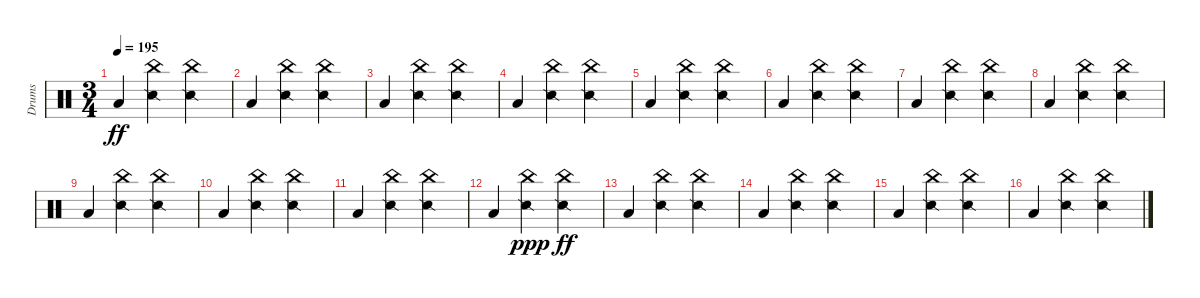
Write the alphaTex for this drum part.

\track ("Drums" "Drums") {instrument percussion}
\staff {score}
\articulation defaults
\ts (3 4)
\tempo 195
\clef neutral
\ks c "Low Floor Tom (hit)".4{dy ff}
("China (hit)" "Snare (side stick) 2").4 ("China (hit)" "Snare (side stick) 2").4 |
"Low Floor Tom (hit)".4 ("China (hit)" "Snare (side stick) 2").4 ("China (hit)" "Snare (side stick) 2").4 |
"Low Floor Tom (hit)".4 ("China (hit)" "Snare (side stick) 2").4 ("China (hit)" "Snare (side stick) 2").4 |
"Low Floor Tom (hit)".4 ("China (hit)" "Snare (side stick) 2").4 ("China (hit)" "Snare (side stick) 2").4 |
"Low Floor Tom (hit)".4 ("China (hit)" "Snare (side stick) 2").4 ("China (hit)" "Snare (side stick) 2").4 |
"Low Floor Tom (hit)".4 ("China (hit)" "Snare (side stick) 2").4 ("China (hit)" "Snare (side stick) 2").4 |
"Low Floor Tom (hit)".4 ("China (hit)" "Snare (side stick) 2").4 ("China (hit)" "Snare (side stick) 2").4 |
"Low Floor Tom (hit)".4{volume 8} ("China (hit)" "Snare (side stick) 2").4 ("China (hit)" "Snare (side stick) 2").4 |
"Low Floor Tom (hit)".4 ("China (hit)" "Snare (side stick) 2").4 ("China (hit)" "Snare (side stick) 2").4 |
"Low Floor Tom (hit)".4{volume 8} ("China (hit)" "Snare (side stick) 2").4 ("China (hit)" "Snare (side stick) 2").4 |
"Low Floor Tom (hit)".4{volume 7} ("China (hit)" "Snare (side stick) 2").4 ("China (hit)" "Snare (side stick) 2").4 |
"Low Floor Tom (hit)".4{volume 6} ("China (hit)" "Snare (side stick) 2").4{dy ppp} ("China (hit)" "Snare (side stick) 2").4{dy ff} |
"Low Floor Tom (hit)".4{volume 6} ("China (hit)" "Snare (side stick) 2").4 ("China (hit)" "Snare (side stick) 2").4 |
"Low Floor Tom (hit)".4{volume 5} ("China (hit)" "Snare (side stick) 2").4 ("China (hit)" "Snare (side stick) 2").4 |
"Low Floor Tom (hit)".4{volume 4} ("China (hit)" "Snare (side stick) 2").4 ("China (hit)" "Snare (side stick) 2").4 |
"Low Floor Tom (hit)".4{volume 4} ("China (hit)" "Snare (side stick) 2").4 ("China (hit)" "Snare (side stick) 2").4
